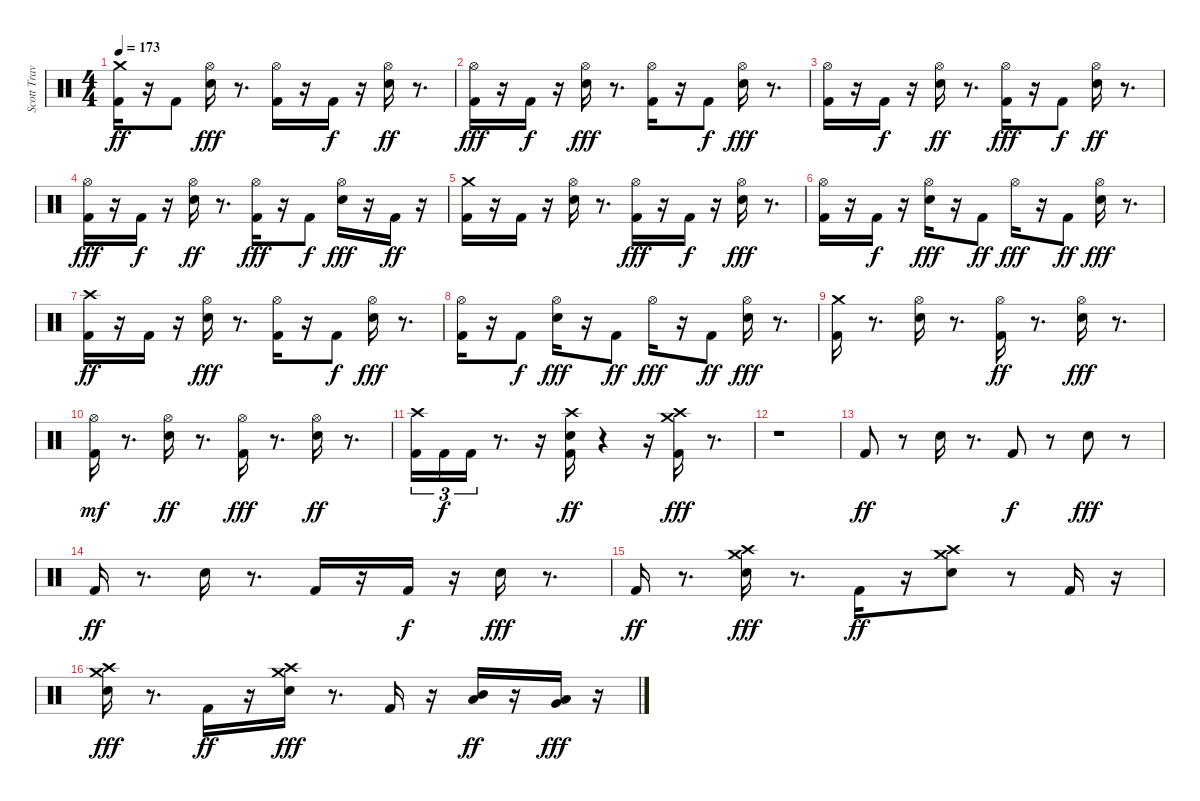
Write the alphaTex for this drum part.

\track ("Scott Travis" "Scott Trav") {instrument percussion}
\staff {score}
\articulation defaults
\ts (4 4)
\tempo 173
\clef neutral
\ks c
("Kick (hit) 2" "Crash medium (hit)").16{dy ff} r.16 "Kick (hit) 2".8 ("Hi-Hat (open)" "Snare (hit) 2").16{dy fff} r.8{d} ("Kick (hit) 2" "Hi-Hat (open)").16 r.16 "Kick (hit) 2".16{dy f} r.16 ("Hi-Hat (open)" "Snare (hit) 2").16{dy ff} r.8{d} |
("Hi-Hat (open)" "Kick (hit) 2").16{dy fff} r.16 "Kick (hit) 2".16{dy f} r.16 ("Snare (hit) 2" "Hi-Hat (open)").16{dy fff} r.8{d} ("Kick (hit) 2" "Hi-Hat (open)").16 r.16 "Kick (hit) 2".8{dy f} ("Snare (hit) 2" "Hi-Hat (open)").16{dy fff} r.8{d} |
("Kick (hit) 2" "Hi-Hat (open)").16 r.16 "Kick (hit) 2".16{dy f} r.16 ("Hi-Hat (open)" "Snare (hit) 2").16{dy ff} r.8{d} ("Kick (hit) 2" "Hi-Hat (open)").16{dy fff} r.16 "Kick (hit) 2".8{dy f} ("Hi-Hat (open)" "Snare (hit) 2").16{dy ff} r.8{d} |
("Kick (hit) 2" "Hi-Hat (open)").16{dy fff} r.16 "Kick (hit) 2".16{dy f} r.16 ("Hi-Hat (open)" "Snare (hit) 2").16{dy ff} r.8{d} ("Kick (hit) 2" "Hi-Hat (open)").16{dy fff} r.16 "Kick (hit) 2".8{dy f} ("Snare (hit) 2" "Hi-Hat (open)").16{dy fff} r.16 "Kick (hit) 2".16{dy ff} r.16 |
("Crash medium (hit)" "Kick (hit) 2").16 r.16 "Kick (hit) 2".16 r.16 ("Snare (hit) 2" "Hi-Hat (open)").16 r.8{d} ("Kick (hit) 2" "Hi-Hat (open)").16{dy fff} r.16 "Kick (hit) 2".16{dy f} r.16 ("Snare (hit) 2" "Hi-Hat (open)").16{dy fff} r.8{d} |
("Kick (hit) 2" "Hi-Hat (open)").16 r.16 "Kick (hit) 2".16{dy f} r.16 ("Snare (hit) 2" "Hi-Hat (open)").16{dy fff} r.16 "Kick (hit) 2".8{dy ff} "Hi-Hat (open)".16{dy fff} r.16 "Kick (hit) 2".8{dy ff} ("Snare (hit) 2" "Hi-Hat (open)").16{dy fff} r.8{d} |
("Crash high (hit)" "Kick (hit) 2").16{dy ff} r.16 "Kick (hit) 2".16 r.16 ("Hi-Hat (open)" "Snare (hit) 2").16{dy fff} r.8{d} ("Kick (hit) 2" "Hi-Hat (open)").16 r.16 "Kick (hit) 2".8{dy f} ("Snare (hit) 2" "Hi-Hat (open)").16{dy fff} r.8{d} |
("Kick (hit) 2" "Hi-Hat (open)").16 r.16 "Kick (hit) 2".8{dy f} ("Snare (hit) 2" "Hi-Hat (open)").16{dy fff} r.16 "Kick (hit) 2".8{dy ff} "Hi-Hat (open)".16{dy fff} r.16 "Kick (hit) 2".8{dy ff} ("Snare (hit) 2" "Hi-Hat (open)").16{dy fff} r.8{d} |
("Crash medium (hit)" "Kick (hit) 2").16 r.8{d} ("Snare (hit) 2" "Hi-Hat (open)").16 r.8{d} ("Hi-Hat (open)" "Kick (hit) 2").16{dy ff} r.8{d} ("Hi-Hat (open)" "Snare (hit) 2").16{dy fff} r.8{d} |
("Hi-Hat (open)" "Kick (hit) 2").16{dy mf} r.8{d} ("Hi-Hat (open)" "Snare (hit) 2").16{dy ff} r.8{d} ("Kick (hit) 2" "Hi-Hat (open)").16{dy fff} r.8{d} ("Hi-Hat (open)" "Snare (hit) 2").16{dy ff} r.8{d} |
("Crash high (hit)" "Kick (hit) 2").16{tu (3 2)} "Kick (hit) 2".16{tu (3 2) dy f} "Kick (hit) 2".16{tu (3 2)} r.8{d} r.16 ("Crash high (hit)" "Kick (hit) 2" "Snare (hit) 2").16{dy ff} r.4 r.16 ("Crash medium (hit)" "Kick (hit) 2" "Crash high (hit)").16{dy fff} r.8{d} |
r.1 |
"Kick (hit) 2".8{dy ff} r.8 "Snare (hit) 2".16 r.8{d} "Kick (hit) 2".8{dy f} r.8 "Snare (hit) 2".8{dy fff} r.8 |
"Kick (hit) 2".16{dy ff} r.8{d} "Snare (hit) 2".16 r.8{d} "Kick (hit) 2".16 r.16 "Kick (hit) 2".16{dy f} r.16 "Snare (hit) 2".16{dy fff} r.8{d} |
"Kick (hit) 2".16{dy ff} r.8{d} ("Snare (hit) 2" "Crash high (hit)" "Crash medium (hit)").16{dy fff} r.8{d} "Kick (hit) 2".16{dy ff} r.16 ("Snare (hit) 2" "Crash high (hit)" "Crash medium (hit)").8 r.8 "Kick (hit) 2".16 r.16 |
("Snare (hit) 2" "Crash high (hit)" "Crash medium (hit)").16{dy fff} r.8{d} "Kick (hit) 2".16{dy ff} r.16 ("Snare (hit) 2" "Crash medium (hit)" "Crash high (hit)").16{dy fff} r.8{d} "Kick (hit) 2".16 r.16 ("Mid Tom (hit)" "Low Tom (hit)").16{dy ff} r.16 ("Very Low Tom (hit)" "Low Tom (hit)").16{dy fff} r.16
